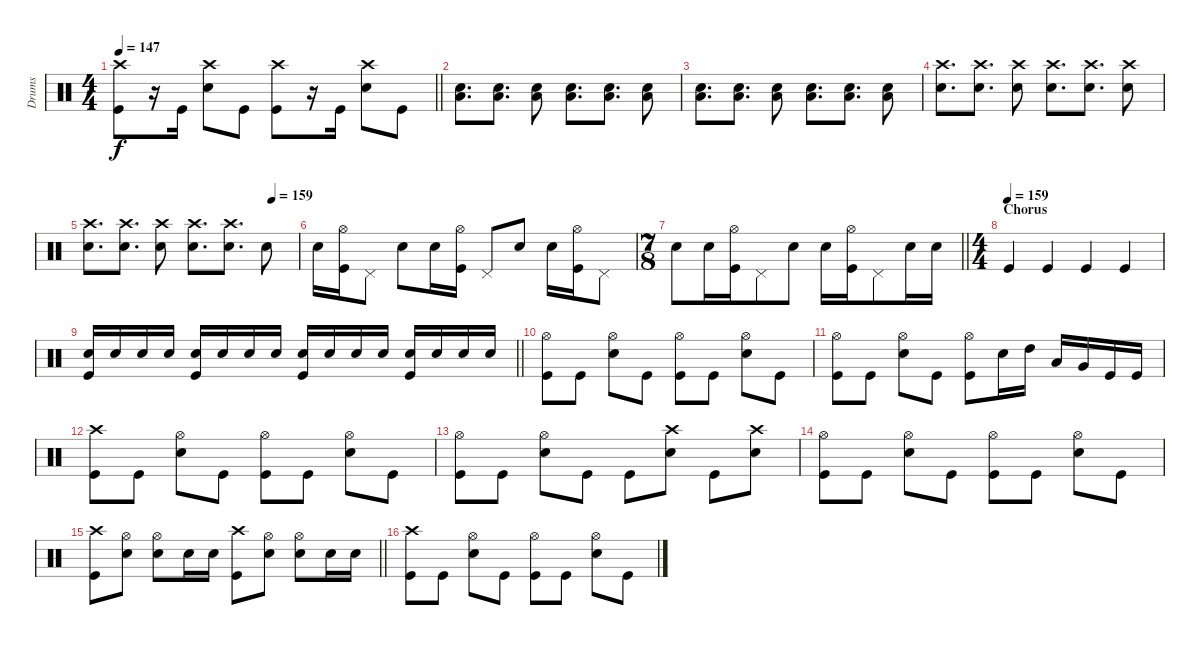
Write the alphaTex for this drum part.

\track ("Drums" "Drums") {instrument percussion}
\staff {score}
\articulation defaults
\ts (4 4)
\tempo 147
\clef neutral
\barLineRight lightlight
\ks c
("Crash high (hit)" "Kick (hit)").8{dy f} r.16 "Kick (hit)".16 ("Crash high (hit)" "Snare (hit) 2").8 "Kick (hit)".8 ("Crash high (hit)" "Kick (hit)").8 r.16 "Kick (hit)".16 ("Crash high (hit)" "Snare (hit) 2").8 "Kick (hit)".8 |
\section ("" "")
("Snare (hit) 2" "Low Tom (hit)").8{d} ("Snare (hit) 2" "Low Tom (hit)").8{d} ("Snare (hit) 2" "Low Tom (hit)").8 ("Snare (hit) 2" "Low Tom (hit)").8{d} ("Snare (hit) 2" "Low Tom (hit)").8{d} ("Snare (hit) 2" "Low Tom (hit)").8 |
("Snare (hit) 2" "Low Tom (hit)").8{d} ("Snare (hit) 2" "Low Tom (hit)").8{d} ("Snare (hit) 2" "Low Tom (hit)").8 ("Snare (hit) 2" "Low Tom (hit)").8{d} ("Snare (hit) 2" "Low Tom (hit)").8{d} ("Snare (hit) 2" "Low Tom (hit)").8 |
("Snare (hit) 2" "Crash high (hit)").8{d} ("Snare (hit) 2" "Crash high (hit)").8{d} ("Snare (hit) 2" "Crash high (hit)").8 ("Snare (hit) 2" "Crash high (hit)").8{d} ("Snare (hit) 2" "Crash high (hit)").8{d} ("Snare (hit) 2" "Crash high (hit)").8 |
\tempo (159 0.875)
("Snare (hit) 2" "Crash high (hit)").8{d} ("Snare (hit) 2" "Crash high (hit)").8{d} ("Snare (hit) 2" "Crash high (hit)").8 ("Snare (hit) 2" "Crash high (hit)").8{d} ("Snare (hit) 2" "Crash high (hit)").8{d} "Snare (hit) 2".8 |
"Snare (hit) 2".16 ("Hi-Hat (open)" "Kick (hit)").16 "Pedal Hi-Hat (hit)".8 "Snare (hit) 2".8 "Snare (hit) 2".16 ("Hi-Hat (open)" "Kick (hit)").16 "Pedal Hi-Hat (hit)".8 "Snare (hit) 2".8 "Snare (hit) 2".16 ("Hi-Hat (open)" "Kick (hit)").16 "Pedal Hi-Hat (hit)".8 |
\ts (7 8)
\barLineRight lightlight "Snare (hit) 2".8 "Snare (hit) 2".16
("Hi-Hat (open)" "Kick (hit)").16 "Pedal Hi-Hat (hit)".8 "Snare (hit) 2".8 "Snare (hit) 2".16 ("Hi-Hat (open)" "Kick (hit)").16 "Pedal Hi-Hat (hit)".8 "Snare (hit) 2".16 "Snare (hit) 2".16 |
\ts (4 4)
\section ("" "Chorus")
\tempo (159)
"Kick (hit)".4 "Kick (hit)".4 "Kick (hit)".4 "Kick (hit)".4 |
\barLineRight lightlight
("Snare (hit) 2" "Kick (hit)").16{volume 5} "Snare (hit) 2".16{volume 14} "Snare (hit) 2".16 "Snare (hit) 2".16 ("Snare (hit) 2" "Kick (hit)").16 "Snare (hit) 2".16 "Snare (hit) 2".16 "Snare (hit) 2".16 ("Snare (hit) 2" "Kick (hit)").16 "Snare (hit) 2".16 "Snare (hit) 2".16 "Snare (hit) 2".16 ("Snare (hit) 2" "Kick (hit)").16 "Snare (hit) 2".16 "Snare (hit) 2".16 "Snare (hit) 2".16 |
("Hi-Hat (open)" "Kick (hit)").8 "Kick (hit)".8 ("Hi-Hat (open)" "Snare (hit) 2").8 "Kick (hit)".8 ("Hi-Hat (open)" "Kick (hit)").8 "Kick (hit)".8 ("Hi-Hat (open)" "Snare (hit) 2").8 "Kick (hit)".8 |
("Hi-Hat (open)" "Kick (hit)").8 "Kick (hit)".8 ("Hi-Hat (open)" "Snare (hit) 2").8 "Kick (hit)".8 ("Hi-Hat (open)" "Kick (hit)").8 "Snare (hit) 2".16 "High Tom (hit)".16 "Low Tom (hit)".16 "Very Low Tom (hit)".16 "Kick (hit)".16 "Kick (hit)".16 |
("Crash high (hit)" "Kick (hit)").8 "Kick (hit)".8 ("Hi-Hat (open)" "Snare (hit) 2").8 "Kick (hit)".8 ("Hi-Hat (open)" "Kick (hit)").8 "Kick (hit)".8 ("Hi-Hat (open)" "Snare (hit) 2").8 "Kick (hit)".8 |
("Hi-Hat (open)" "Kick (hit)").8 "Kick (hit)".8 ("Hi-Hat (open)" "Snare (hit) 2").8 "Kick (hit)".8 "Kick (hit)".8 ("Crash high (hit)" "Snare (hit) 2").8 "Kick (hit)".8 ("Crash high (hit)" "Snare (hit) 2").8 |
("Hi-Hat (open)" "Kick (hit)").8 "Kick (hit)".8 ("Hi-Hat (open)" "Snare (hit) 2").8 "Kick (hit)".8 ("Hi-Hat (open)" "Kick (hit)").8 "Kick (hit)".8 ("Hi-Hat (open)" "Snare (hit) 2").8 "Kick (hit)".8 |
\barLineRight lightlight
("Crash high (hit)" "Kick (hit)").8 ("Hi-Hat (open)" "Snare (hit) 2").8 ("Hi-Hat (open)" "Snare (hit) 2").8 "Snare (hit) 2".16 "Snare (hit) 2".16 ("Crash high (hit)" "Kick (hit)").8 ("Hi-Hat (open)" "Snare (hit) 2").8 ("Hi-Hat (open)" "Snare (hit) 2").8 "Snare (hit) 2".16 "Snare (hit) 2".16 |
\section ("" "")
("Crash high (hit)" "Kick (hit)").8 "Kick (hit)".8 ("Hi-Hat (open)" "Snare (hit) 2").8 "Kick (hit)".8 ("Hi-Hat (open)" "Kick (hit)").8 "Kick (hit)".8 ("Hi-Hat (open)" "Snare (hit) 2").8 "Kick (hit)".8
